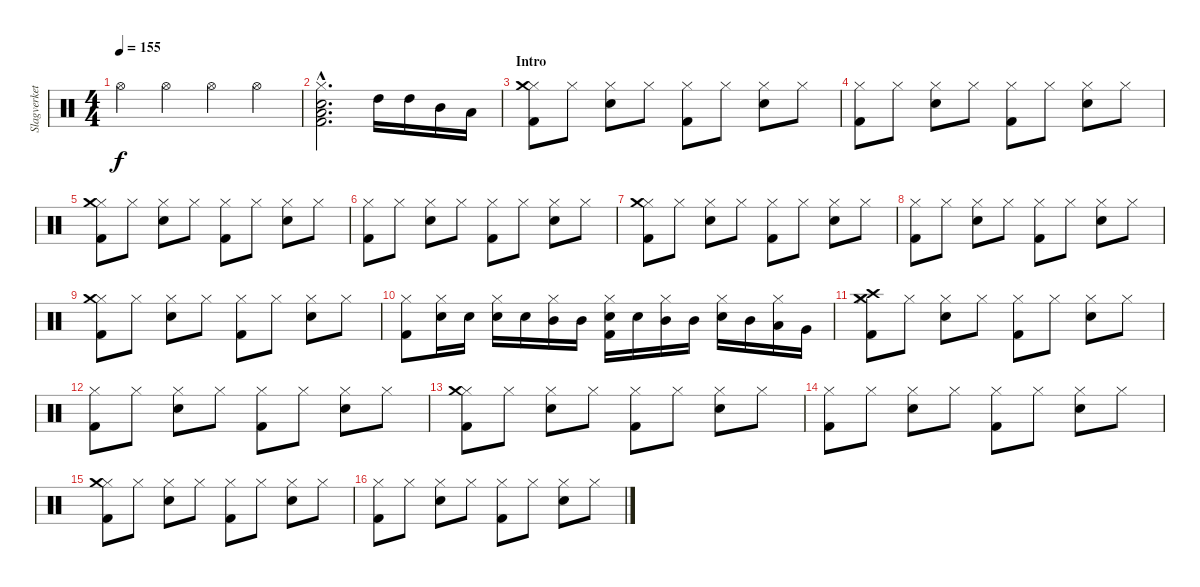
\track ("Slagverket!" "Slagverket") {instrument percussion}
\staff {score}
\articulation defaults
\ts (4 4)
\tempo 155
\clef neutral
\ks c "Hi-Hat (open)".4{dy f} "Hi-Hat (open)".4 "Hi-Hat (open)".4 "Hi-Hat (open)".4
|
("Hi-Hat (closed)"{hac} "Snare (hit) 2"{hac} "Low Floor Tom (hit)"{hac} "Kick (hit) 2"{hac}).2{d} "High Tom (hit)".16 "High Tom (hit)".16 "Mid Tom (hit)".16 "Low Tom (hit)".16 |
\section ("" "Intro")
("Hi-Hat (closed)" "Crash medium (hit)" "Kick (hit) 2").8 "Hi-Hat (closed)".8 ("Hi-Hat (closed)" "Electric Snare (hit)").8 "Hi-Hat (closed)".8 ("Hi-Hat (closed)" "Kick (hit) 2").8 "Hi-Hat (closed)".8 ("Hi-Hat (closed)" "Electric Snare (hit)").8 "Hi-Hat (closed)".8 |
("Hi-Hat (closed)" "Kick (hit) 2").8 "Hi-Hat (closed)".8 ("Hi-Hat (closed)" "Electric Snare (hit)").8 "Hi-Hat (closed)".8 ("Hi-Hat (closed)" "Kick (hit) 2").8 "Hi-Hat (closed)".8 ("Hi-Hat (closed)" "Electric Snare (hit)").8 "Hi-Hat (closed)".8 |
("Hi-Hat (closed)" "Crash medium (hit)" "Kick (hit) 2").8 "Hi-Hat (closed)".8 ("Hi-Hat (closed)" "Electric Snare (hit)").8 "Hi-Hat (closed)".8 ("Hi-Hat (closed)" "Kick (hit) 2").8 "Hi-Hat (closed)".8 ("Hi-Hat (closed)" "Electric Snare (hit)").8 "Hi-Hat (closed)".8 |
("Hi-Hat (closed)" "Kick (hit) 2").8 "Hi-Hat (closed)".8 ("Hi-Hat (closed)" "Electric Snare (hit)").8 "Hi-Hat (closed)".8 ("Hi-Hat (closed)" "Kick (hit) 2").8 "Hi-Hat (closed)".8 ("Hi-Hat (closed)" "Electric Snare (hit)").8 "Hi-Hat (closed)".8 |
("Hi-Hat (closed)" "Crash medium (hit)" "Kick (hit) 2").8 "Hi-Hat (closed)".8 ("Hi-Hat (closed)" "Electric Snare (hit)").8 "Hi-Hat (closed)".8 ("Hi-Hat (closed)" "Kick (hit) 2").8 "Hi-Hat (closed)".8 ("Hi-Hat (closed)" "Electric Snare (hit)").8 "Hi-Hat (closed)".8 |
("Hi-Hat (closed)" "Kick (hit) 2").8 "Hi-Hat (closed)".8 ("Hi-Hat (closed)" "Electric Snare (hit)").8 "Hi-Hat (closed)".8 ("Hi-Hat (closed)" "Kick (hit) 2").8 "Hi-Hat (closed)".8 ("Hi-Hat (closed)" "Electric Snare (hit)").8 "Hi-Hat (closed)".8 |
("Hi-Hat (closed)" "Crash medium (hit)" "Kick (hit) 2").8 "Hi-Hat (closed)".8 ("Hi-Hat (closed)" "Electric Snare (hit)").8 "Hi-Hat (closed)".8 ("Hi-Hat (closed)" "Kick (hit) 2").8 "Hi-Hat (closed)".8 ("Hi-Hat (closed)" "Electric Snare (hit)").8 "Hi-Hat (closed)".8 |
("Hi-Hat (closed)" "Kick (hit) 2").8 ("Hi-Hat (closed)" "Electric Snare (hit)").16 "Electric Snare (hit)".16 ("Hi-Hat (closed)" "Electric Snare (hit)").16 "Electric Snare (hit)".16 ("Hi-Hat (closed)" "Mid Tom (hit)").16 "Mid Tom (hit)".16 ("Hi-Hat (closed)" "Electric Snare (hit)" "Kick (hit) 2").16 "Electric Snare (hit)".16 ("Hi-Hat (closed)" "Mid Tom (hit)").16 "Mid Tom (hit)".16 ("Hi-Hat (closed)" "Electric Snare (hit)").16 "Mid Tom (hit)".16 ("Hi-Hat (closed)" "Low Tom (hit)").16 "Very Low Tom (hit)".16 |
\section ("" "")
("Hi-Hat (closed)" "Crash medium (hit)" "Crash high (hit)" "Kick (hit) 2").8 "Hi-Hat (closed)".8 ("Hi-Hat (closed)" "Electric Snare (hit)").8 "Hi-Hat (closed)".8 ("Hi-Hat (closed)" "Kick (hit) 2").8 "Hi-Hat (closed)".8 ("Hi-Hat (closed)" "Electric Snare (hit)").8 "Hi-Hat (closed)".8 |
("Hi-Hat (closed)" "Kick (hit) 2").8 "Hi-Hat (closed)".8 ("Hi-Hat (closed)" "Electric Snare (hit)").8 "Hi-Hat (closed)".8 ("Hi-Hat (closed)" "Kick (hit) 2").8 "Hi-Hat (closed)".8 ("Hi-Hat (closed)" "Electric Snare (hit)").8 "Hi-Hat (closed)".8 |
("Hi-Hat (closed)" "Crash medium (hit)" "Kick (hit) 2").8 "Hi-Hat (closed)".8 ("Hi-Hat (closed)" "Electric Snare (hit)").8 "Hi-Hat (closed)".8 ("Hi-Hat (closed)" "Kick (hit) 2").8 "Hi-Hat (closed)".8 ("Hi-Hat (closed)" "Electric Snare (hit)").8 "Hi-Hat (closed)".8 |
("Hi-Hat (closed)" "Kick (hit) 2").8 "Hi-Hat (closed)".8 ("Hi-Hat (closed)" "Electric Snare (hit)").8 "Hi-Hat (closed)".8 ("Hi-Hat (closed)" "Kick (hit) 2").8 "Hi-Hat (closed)".8 ("Hi-Hat (closed)" "Electric Snare (hit)").8 "Hi-Hat (closed)".8 |
("Hi-Hat (closed)" "Crash medium (hit)" "Kick (hit) 2").8 "Hi-Hat (closed)".8 ("Hi-Hat (closed)" "Electric Snare (hit)").8 "Hi-Hat (closed)".8 ("Hi-Hat (closed)" "Kick (hit) 2").8 "Hi-Hat (closed)".8 ("Hi-Hat (closed)" "Electric Snare (hit)").8 "Hi-Hat (closed)".8 |
("Hi-Hat (closed)" "Kick (hit) 2").8 "Hi-Hat (closed)".8 ("Hi-Hat (closed)" "Electric Snare (hit)").8 "Hi-Hat (closed)".8 ("Hi-Hat (closed)" "Kick (hit) 2").8 "Hi-Hat (closed)".8 ("Hi-Hat (closed)" "Electric Snare (hit)").8 "Hi-Hat (closed)".8
